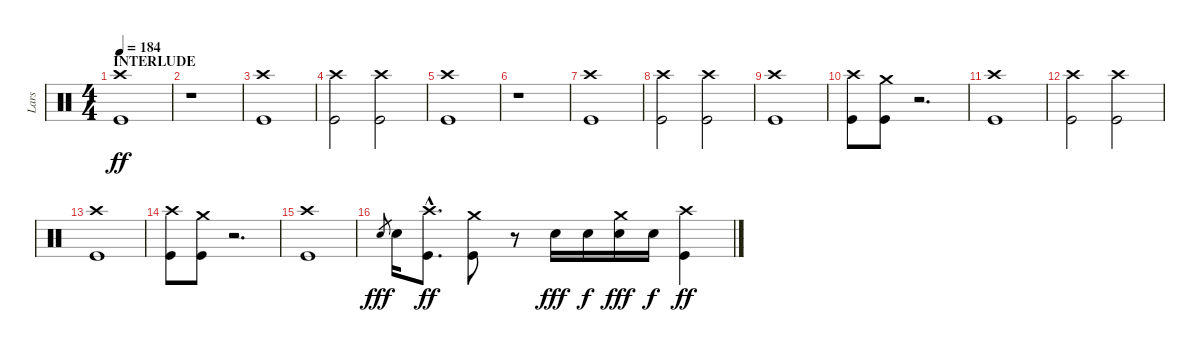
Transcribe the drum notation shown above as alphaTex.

\track ("Lars" "Lars") {instrument percussion}
\staff {score}
\articulation defaults
\ts (4 4)
\section ("" "INTERLUDE")
\tempo 184
\clef neutral
\ks c
("Crash high (hit)" "Kick (hit)").1{dy ff} |
r.1 |
("Crash high (hit)" "Kick (hit)").1 |
("Crash high (hit)" "Kick (hit)").2 ("Crash high (hit)" "Kick (hit)").2 |
("Crash high (hit)" "Kick (hit)").1 |
r.1 |
("Crash high (hit)" "Kick (hit)").1 |
("Crash high (hit)" "Kick (hit)").2 ("Crash high (hit)" "Kick (hit)").2 |
("Crash high (hit)" "Kick (hit)").1 |
("Crash high (hit)" "Kick (hit)").8 ("Crash medium (hit)" "Kick (hit)").8 r.2{d} |
("Crash high (hit)" "Kick (hit)").1 |
("Crash high (hit)" "Kick (hit)").2 ("Crash high (hit)" "Kick (hit)").2 |
("Crash high (hit)" "Kick (hit)").1 |
("Crash high (hit)" "Kick (hit)").8 ("Crash medium (hit)" "Kick (hit)").8 r.2{d} |
("Crash high (hit)" "Kick (hit)").1 |
"Electric Snare (hit)".8{gr dy fff} "Electric Snare (hit)".16 ("Crash high (hit)"{hac} "Kick (hit)"{hac}).8{d dy ff} ("Crash medium (hit)" "Kick (hit)").8 r.8 "Electric Snare (hit)".16{dy fff} "Electric Snare (hit)".16{dy f} ("Crash medium (hit)" "Electric Snare (hit)").16{dy fff} "Electric Snare (hit)".16{dy f} ("Crash high (hit)" "Kick (hit)").4{dy ff}
